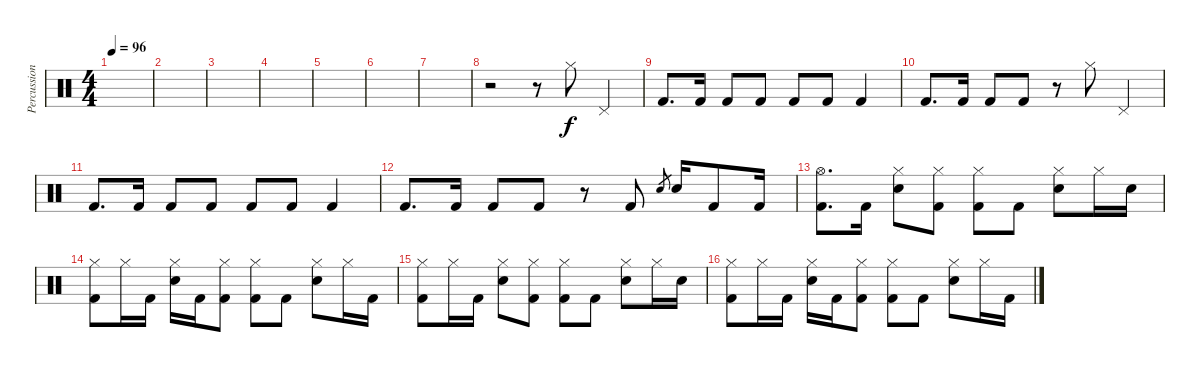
\track ("Percussions" "Percussion") {instrument percussion}
\staff {score}
\articulation defaults
\ts (4 4)
\tempo 96
\clef neutral
\ks c
|
|
|
|
|
|
|
r.2 r.8 "Hi-Hat (closed)".8 "Pedal Hi-Hat (hit)".4 |
"Kick (hit) 2".8{d} "Kick (hit) 2".16 "Kick (hit) 2".8 "Kick (hit) 2".8 "Kick (hit) 2".8 "Kick (hit) 2".8 "Kick (hit) 2".4 |
"Kick (hit) 2".8{d} "Kick (hit) 2".16 "Kick (hit) 2".8 "Kick (hit) 2".8 r.8 "Hi-Hat (closed)".8 "Pedal Hi-Hat (hit)".4 |
"Kick (hit) 2".8{d} "Kick (hit) 2".16 "Kick (hit) 2".8 "Kick (hit) 2".8 "Kick (hit) 2".8 "Kick (hit) 2".8 "Kick (hit) 2".4 |
"Kick (hit) 2".8{d} "Kick (hit) 2".16 "Kick (hit) 2".8 "Kick (hit) 2".8 r.8 "Kick (hit) 2".8 "Snare (hit) 2".8{gr} "Snare (hit) 2".16 "Kick (hit) 2".8 "Kick (hit) 2".16 |
("Hi-Hat (open)" "Kick (hit) 2").8{d} "Kick (hit) 2".16 ("Snare (hit) 2" "Hi-Hat (closed)").8 ("Kick (hit) 2" "Hi-Hat (closed)").8 ("Kick (hit) 2" "Hi-Hat (closed)").8 "Kick (hit) 2".8 ("Snare (hit) 2" "Hi-Hat (closed)").8 "Hi-Hat (closed)".16 "Snare (hit) 2".16 |
("Hi-Hat (closed)" "Kick (hit) 2").8 "Hi-Hat (closed)".16 "Kick (hit) 2".16 ("Hi-Hat (closed)" "Snare (hit) 2").16 "Kick (hit) 2".16 ("Hi-Hat (closed)" "Kick (hit) 2").8 ("Kick (hit) 2" "Hi-Hat (closed)").8 "Kick (hit) 2".8 ("Hi-Hat (closed)" "Snare (hit) 2").8 "Hi-Hat (closed)".16 "Kick (hit) 2".16 |
("Kick (hit) 2" "Hi-Hat (closed)").8 "Hi-Hat (closed)".16 "Kick (hit) 2".16 ("Hi-Hat (closed)" "Snare (hit) 2").8 ("Kick (hit) 2" "Hi-Hat (closed)").8 ("Kick (hit) 2" "Hi-Hat (closed)").8 "Kick (hit) 2".8 ("Hi-Hat (closed)" "Snare (hit) 2").8 "Hi-Hat (closed)".16 "Snare (hit) 2".16 |
("Hi-Hat (closed)" "Kick (hit) 2").8 "Hi-Hat (closed)".16 "Kick (hit) 2".16 ("Hi-Hat (closed)" "Snare (hit) 2").16 "Kick (hit) 2".16 ("Hi-Hat (closed)" "Kick (hit) 2").8 ("Kick (hit) 2" "Hi-Hat (closed)").8 "Kick (hit) 2".8 ("Hi-Hat (closed)" "Snare (hit) 2").8 "Hi-Hat (closed)".16 "Kick (hit) 2".16
